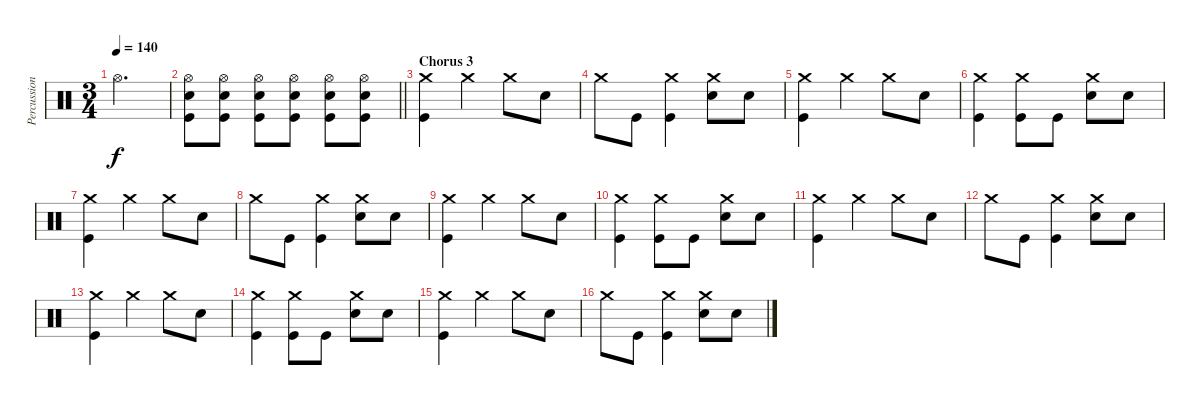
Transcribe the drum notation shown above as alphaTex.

\track ("Percussion" "Percussion") {instrument percussion}
\staff {score}
\articulation defaults
\ts (3 4)
\tempo 140
\clef neutral
\ks c "Hi-Hat (open)".2{d dy f}
|
\barLineRight lightlight
("Hi-Hat (open)" "Electric Snare (hit)" "Kick (hit)").8 ("Hi-Hat (open)" "Electric Snare (hit)" "Kick (hit)").8 ("Hi-Hat (open)" "Electric Snare (hit)" "Kick (hit)").8 ("Hi-Hat (open)" "Electric Snare (hit)" "Kick (hit)").8 ("Hi-Hat (open)" "Electric Snare (hit)" "Kick (hit)").8 ("Hi-Hat (open)" "Electric Snare (hit)" "Kick (hit)").8 |
\section ("" "Chorus 3")
("Crash medium (hit)" "Kick (hit)").4 "Crash medium (hit)".4 "Crash medium (hit)".8 "Electric Snare (hit)".8 |
"Crash medium (hit)".8 "Kick (hit)".8 ("Crash medium (hit)" "Kick (hit)").4 ("Crash medium (hit)" "Electric Snare (hit)").8 "Electric Snare (hit)".8 |
("Crash medium (hit)" "Kick (hit)").4 "Crash medium (hit)".4 "Crash medium (hit)".8 "Electric Snare (hit)".8 |
("Crash medium (hit)" "Kick (hit)").4 ("Crash medium (hit)" "Kick (hit)").8 "Kick (hit)".8 ("Crash medium (hit)" "Electric Snare (hit)").8 "Electric Snare (hit)".8 |
("Crash medium (hit)" "Kick (hit)").4 "Crash medium (hit)".4 "Crash medium (hit)".8 "Electric Snare (hit)".8 |
"Crash medium (hit)".8 "Kick (hit)".8 ("Crash medium (hit)" "Kick (hit)").4 ("Crash medium (hit)" "Electric Snare (hit)").8 "Electric Snare (hit)".8 |
("Crash medium (hit)" "Kick (hit)").4 "Crash medium (hit)".4 "Crash medium (hit)".8 "Electric Snare (hit)".8 |
("Crash medium (hit)" "Kick (hit)").4 ("Crash medium (hit)" "Kick (hit)").8 "Kick (hit)".8 ("Crash medium (hit)" "Electric Snare (hit)").8 "Electric Snare (hit)".8 |
("Crash medium (hit)" "Kick (hit)").4 "Crash medium (hit)".4 "Crash medium (hit)".8 "Electric Snare (hit)".8 |
"Crash medium (hit)".8 "Kick (hit)".8 ("Crash medium (hit)" "Kick (hit)").4 ("Crash medium (hit)" "Electric Snare (hit)").8 "Electric Snare (hit)".8 |
("Crash medium (hit)" "Kick (hit)").4 "Crash medium (hit)".4 "Crash medium (hit)".8 "Electric Snare (hit)".8 |
("Crash medium (hit)" "Kick (hit)").4 ("Crash medium (hit)" "Kick (hit)").8 "Kick (hit)".8 ("Crash medium (hit)" "Electric Snare (hit)").8 "Electric Snare (hit)".8 |
("Crash medium (hit)" "Kick (hit)").4 "Crash medium (hit)".4 "Crash medium (hit)".8 "Electric Snare (hit)".8 |
"Crash medium (hit)".8 "Kick (hit)".8 ("Crash medium (hit)" "Kick (hit)").4 ("Crash medium (hit)" "Electric Snare (hit)").8 "Electric Snare (hit)".8
